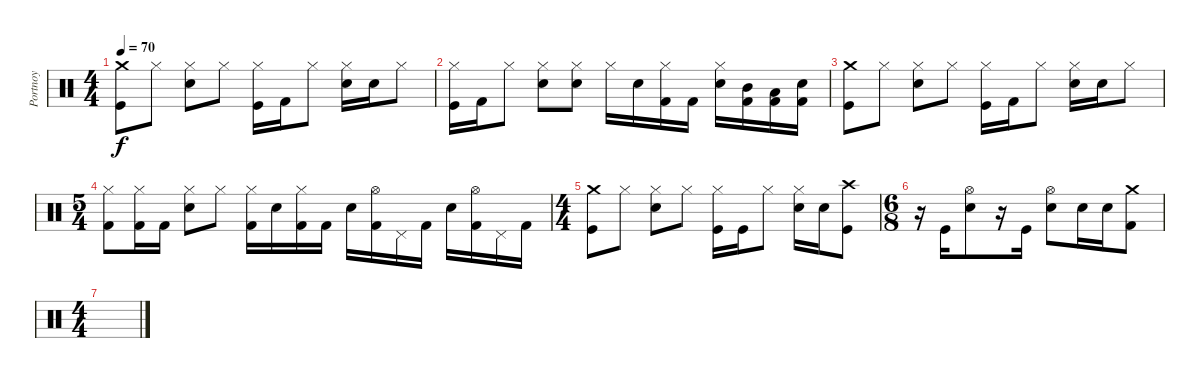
\track ("Portnoy" "Portnoy") {instrument percussion}
\staff {score}
\articulation defaults
\ts (4 4)
\tempo 70
\clef neutral
\ks c
("Crash medium (hit)" "Kick (hit)").8{dy f} "Hi-Hat (closed)".8 ("Electric Snare (hit)" "Hi-Hat (closed)").8 "Hi-Hat (closed)".8 ("Kick (hit)" "Hi-Hat (closed)").16 "Kick (hit) 2".16 "Hi-Hat (closed)".8 ("Hi-Hat (closed)" "Electric Snare (hit)").16 "Electric Snare (hit)".16 "Hi-Hat (closed)".8 |
("Kick (hit)" "Hi-Hat (closed)").16 "Kick (hit) 2".16 "Hi-Hat (closed)".8 ("Hi-Hat (closed)" "Electric Snare (hit)").8 ("Hi-Hat (closed)" "Electric Snare (hit)").8 "Hi-Hat (closed)".16 "Electric Snare (hit)".16 ("Hi-Hat (closed)" "Kick (hit) 2").16 "Kick (hit) 2".16 ("Hi-Hat (closed)" "Electric Snare (hit)").16 ("Kick (hit) 2" "Mid Tom (hit)").16 ("Low Tom (hit)" "Kick (hit) 2").16 ("Electric Snare (hit)" "Kick (hit) 2").16 |
("Crash medium (hit)" "Kick (hit)").8 "Hi-Hat (closed)".8 ("Electric Snare (hit)" "Hi-Hat (closed)").8 "Hi-Hat (closed)".8 ("Kick (hit)" "Hi-Hat (closed)").16 "Kick (hit) 2".16 "Hi-Hat (closed)".8 ("Hi-Hat (closed)" "Electric Snare (hit)").16 "Electric Snare (hit)".16 "Hi-Hat (closed)".8 |
\ts (5 4)
("Hi-Hat (closed)" "Kick (hit) 2").8{volume 0} ("Kick (hit) 2" "Hi-Hat (closed)").16 "Kick (hit) 2".16 ("Electric Snare (hit)" "Hi-Hat (closed)").8 "Hi-Hat (closed)".8 ("Hi-Hat (closed)" "Kick (hit) 2").16 "Electric Snare (hit)".16 ("Hi-Hat (closed)" "Kick (hit) 2").16 "Kick (hit) 2".16 "Electric Snare (hit)".16 ("Kick (hit) 2" "Hi-Hat (open)").16 "Pedal Hi-Hat (hit)".16 "Kick (hit) 2".16 "Electric Snare (hit)".16 ("Kick (hit) 2" "Hi-Hat (open)").16 "Pedal Hi-Hat (hit)".16 "Kick (hit) 2".16 |
\ts (4 4)
("Crash medium (hit)" "Kick (hit)").8 "Hi-Hat (closed)".8 ("Electric Snare (hit)" "Hi-Hat (closed)").8 "Hi-Hat (closed)".8 ("Kick (hit)" "Hi-Hat (closed)").16 "Kick (hit)".16 "Hi-Hat (closed)".8 ("Hi-Hat (closed)" "Electric Snare (hit)").16 "Electric Snare (hit)".16 ("Crash high (hit)" "Kick (hit)").8 |
\ts (6 8)
r.16 "Kick (hit)".16 ("Hi-Hat (open)" "Electric Snare (hit)").8 r.16 "Kick (hit)".16 ("Hi-Hat (open)" "Electric Snare (hit)").8 "Electric Snare (hit)".16 "Electric Snare (hit)".16 ("Crash medium (hit)" "Kick (hit) 2").8 |
\ts (4 4)
